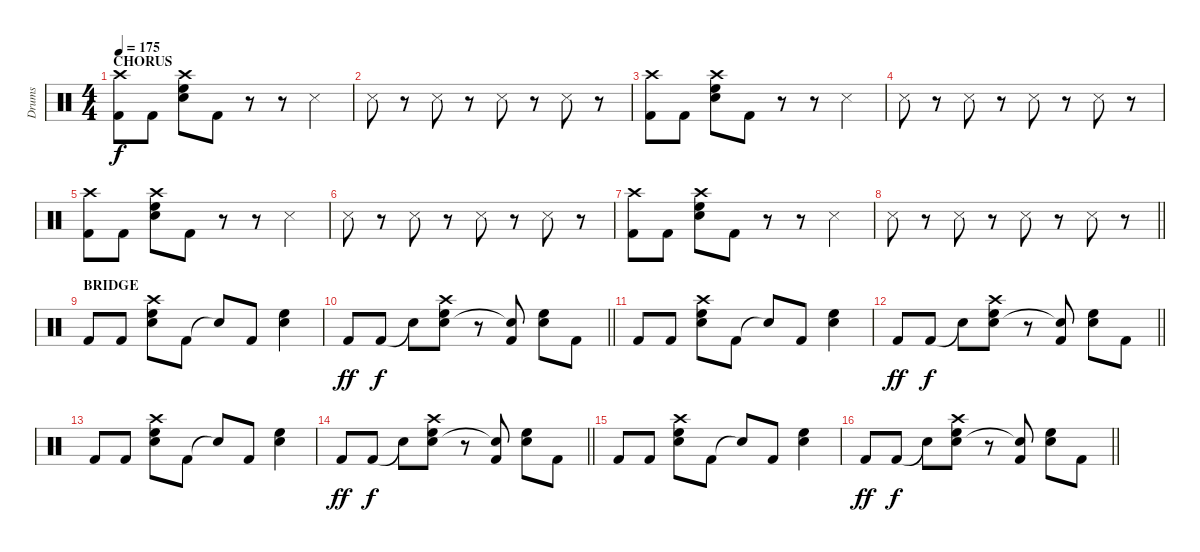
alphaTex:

\track ("Drums" "Drums") {instrument percussion}
\staff {score}
\articulation defaults
\ts (4 4)
\section ("" "CHORUS")
\tempo 175
\clef neutral
\ks c
("Kick (hit) 2" "Crash high (hit)").8{dy f} "Kick (hit) 2".8 ("High Floor Tom (hit)" "Electric Snare (hit)" "Crash high (hit)").8 "Kick (hit) 2".8 r.8 r.8 "Metronome (hit)".4 |
"Metronome (hit)".8 r.8 "Metronome (hit)".8 r.8 "Metronome (hit)".8 r.8 "Metronome (hit)".8 r.8 |
("Kick (hit) 2" "Crash high (hit)").8 "Kick (hit) 2".8 ("High Floor Tom (hit)" "Electric Snare (hit)" "Crash high (hit)").8 "Kick (hit) 2".8 r.8 r.8 "Metronome (hit)".4 |
"Metronome (hit)".8 r.8 "Metronome (hit)".8 r.8 "Metronome (hit)".8 r.8 "Metronome (hit)".8 r.8 |
("Kick (hit) 2" "Crash high (hit)").8 "Kick (hit) 2".8 ("High Floor Tom (hit)" "Electric Snare (hit)" "Crash high (hit)").8 "Kick (hit) 2".8 r.8 r.8 "Metronome (hit)".4 |
"Metronome (hit)".8 r.8 "Metronome (hit)".8 r.8 "Metronome (hit)".8 r.8 "Metronome (hit)".8 r.8 |
("Kick (hit) 2" "Crash high (hit)").8 "Kick (hit) 2".8 ("High Floor Tom (hit)" "Electric Snare (hit)" "Crash high (hit)").8 "Kick (hit) 2".8 r.8 r.8 "Metronome (hit)".4 |
\barLineRight lightlight "Metronome (hit)".8
r.8 "Metronome (hit)".8 r.8 "Metronome (hit)".8 r.8 "Metronome (hit)".8 r.8 |
\section ("" "BRIDGE")
"Kick (hit) 2".8 "Kick (hit) 2".8 ("High Floor Tom (hit)" "Electric Snare (hit)" "Crash high (hit)").8 "Kick (hit) 2".8 "Snare (hit)"{t}.8 "Kick (hit) 2".8 ("High Floor Tom (hit)" "Electric Snare (hit)").4 |
\barLineRight lightlight "Kick (hit) 2".8{dy ff} "Kick (hit) 2".8{dy f} "Snare (hit)"{t}.8
("High Floor Tom (hit)" "Electric Snare (hit)" "Crash high (hit)").8 r.8 ("Kick (hit) 2" "Snare (hit)"{t}).8 ("High Floor Tom (hit)" "Electric Snare (hit)").8 "Kick (hit) 2".8 |
"Kick (hit) 2".8 "Kick (hit) 2".8 ("High Floor Tom (hit)" "Electric Snare (hit)" "Crash high (hit)").8 "Kick (hit) 2".8 "Snare (hit)"{t}.8 "Kick (hit) 2".8 ("High Floor Tom (hit)" "Electric Snare (hit)").4 |
\barLineRight lightlight "Kick (hit) 2".8{dy ff} "Kick (hit) 2".8{dy f} "Snare (hit)"{t}.8
("High Floor Tom (hit)" "Electric Snare (hit)" "Crash high (hit)").8 r.8 ("Kick (hit) 2" "Snare (hit)"{t}).8 ("High Floor Tom (hit)" "Electric Snare (hit)").8 "Kick (hit) 2".8 |
"Kick (hit) 2".8 "Kick (hit) 2".8 ("High Floor Tom (hit)" "Electric Snare (hit)" "Crash high (hit)").8 "Kick (hit) 2".8 "Snare (hit)"{t}.8 "Kick (hit) 2".8 ("High Floor Tom (hit)" "Electric Snare (hit)").4 |
\barLineRight lightlight "Kick (hit) 2".8{dy ff} "Kick (hit) 2".8{dy f} "Snare (hit)"{t}.8
("High Floor Tom (hit)" "Electric Snare (hit)" "Crash high (hit)").8 r.8 ("Kick (hit) 2" "Snare (hit)"{t}).8 ("High Floor Tom (hit)" "Electric Snare (hit)").8 "Kick (hit) 2".8 |
"Kick (hit) 2".8 "Kick (hit) 2".8 ("High Floor Tom (hit)" "Electric Snare (hit)" "Crash high (hit)").8 "Kick (hit) 2".8 "Snare (hit)"{t}.8 "Kick (hit) 2".8 ("High Floor Tom (hit)" "Electric Snare (hit)").4 |
\barLineRight lightlight "Kick (hit) 2".8{dy ff} "Kick (hit) 2".8{dy f} "Snare (hit)"{t}.8
("High Floor Tom (hit)" "Electric Snare (hit)" "Crash high (hit)").8 r.8 ("Kick (hit) 2" "Snare (hit)"{t}).8 ("High Floor Tom (hit)" "Electric Snare (hit)").8 "Kick (hit) 2".8
